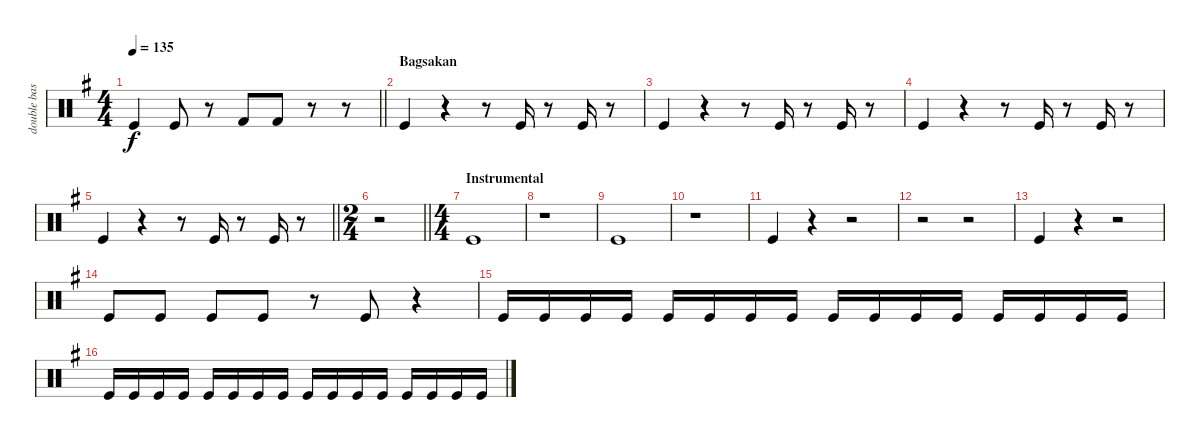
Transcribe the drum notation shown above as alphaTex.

\track ("double bass" "double bas") {instrument percussion}
\staff {score}
\articulation defaults
\ts (4 4)
\tempo 135
\clef neutral
\barLineRight lightlight
\ks eminor "Kick (hit)".4{dy f} "Kick (hit)".8
r.8 "Kick (hit) 2".8 "Kick (hit) 2".8 r.8 r.8 |
\section ("" "Bagsakan")
"Kick (hit)".4 r.4 r.8 "Kick (hit)".16 r.8 "Kick (hit)".16 r.8 |
"Kick (hit)".4 r.4 r.8 "Kick (hit)".16 r.8 "Kick (hit)".16 r.8 |
"Kick (hit)".4 r.4 r.8 "Kick (hit)".16 r.8 "Kick (hit)".16 r.8 |
\barLineRight lightlight "Kick (hit)".4
r.4 r.8 "Kick (hit)".16 r.8 "Kick (hit)".16 r.8 |
\ts (2 4)
\barLineRight lightlight
r.2 |
\ts (4 4)
\section ("" "Instrumental")
"Kick (hit)".1 |
r.1 |
"Kick (hit)".1 |
r.1 |
"Kick (hit)".4 r.4 r.2 |
r.2 r.2 |
"Kick (hit)".4 r.4 r.2 |
"Kick (hit)".8 "Kick (hit)".8 "Kick (hit)".8 "Kick (hit)".8 r.8 "Kick (hit)".8 r.4 |
"Kick (hit)".16 "Kick (hit)".16 "Kick (hit)".16 "Kick (hit)".16 "Kick (hit)".16 "Kick (hit)".16 "Kick (hit)".16 "Kick (hit)".16 "Kick (hit)".16 "Kick (hit)".16 "Kick (hit)".16 "Kick (hit)".16 "Kick (hit)".16 "Kick (hit)".16 "Kick (hit)".16 "Kick (hit)".16 |
"Kick (hit)".16 "Kick (hit)".16 "Kick (hit)".16 "Kick (hit)".16 "Kick (hit)".16 "Kick (hit)".16 "Kick (hit)".16 "Kick (hit)".16 "Kick (hit)".16 "Kick (hit)".16 "Kick (hit)".16 "Kick (hit)".16 "Kick (hit)".16 "Kick (hit)".16 "Kick (hit)".16 "Kick (hit)".16
